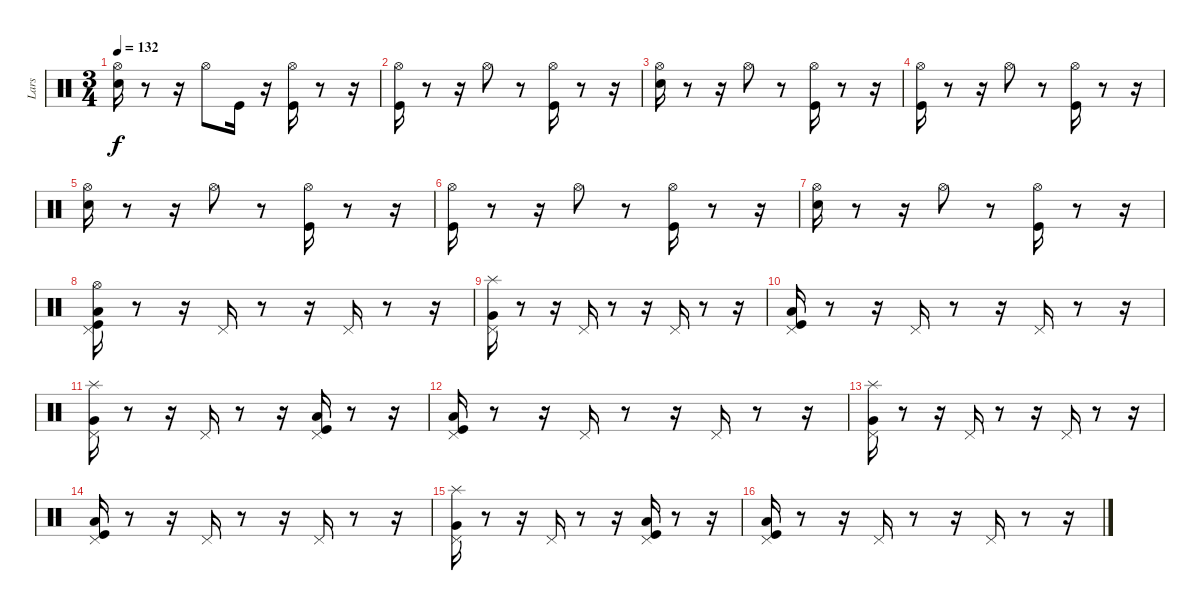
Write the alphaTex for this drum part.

\track ("Lars" "Lars") {instrument percussion}
\staff {score}
\articulation defaults
\ts (3 4)
\tempo 132
\clef neutral
\ks c
("Snare (hit) 2" "Hi-Hat (open)").16{dy f} r.8 r.16 "Hi-Hat (open)".8 "Kick (hit)".16 r.16 ("Hi-Hat (open)" "Kick (hit)").16 r.8 r.16 |
("Kick (hit)" "Hi-Hat (open)").16 r.8 r.16 "Hi-Hat (open)".8 r.8 ("Hi-Hat (open)" "Kick (hit)").16 r.8 r.16 |
("Hi-Hat (open)" "Snare (hit) 2").16 r.8 r.16 "Hi-Hat (open)".8 r.8 ("Hi-Hat (open)" "Kick (hit)").16 r.8 r.16 |
("Hi-Hat (open)" "Kick (hit)").16 r.8 r.16 "Hi-Hat (open)".8 r.8 ("Kick (hit)" "Hi-Hat (open)").16 r.8 r.16 |
("Hi-Hat (open)" "Snare (hit) 2").16 r.8 r.16 "Hi-Hat (open)".8 r.8 ("Hi-Hat (open)" "Kick (hit)").16 r.8 r.16 |
("Hi-Hat (open)" "Kick (hit)").16 r.8 r.16 "Hi-Hat (open)".8 r.8 ("Kick (hit)" "Hi-Hat (open)").16 r.8 r.16 |
("Hi-Hat (open)" "Snare (hit) 2").16 r.8 r.16 "Hi-Hat (open)".8 r.8 ("Hi-Hat (open)" "Kick (hit)").16 r.8 r.16 |
("Hi-Hat (open)" "Kick (hit)" "Pedal Hi-Hat (hit)" "Low Floor Tom (hit)").16 r.8 r.16 "Pedal Hi-Hat (hit)".16 r.8 r.16 "Pedal Hi-Hat (hit)".16 r.8 r.16 |
("Pedal Hi-Hat (hit)" "Very Low Tom (hit)" "Splash (hit)").16 r.8 r.16 "Pedal Hi-Hat (hit)".16 r.8 r.16 "Pedal Hi-Hat (hit)".16 r.8 r.16 |
("Low Floor Tom (hit)" "Pedal Hi-Hat (hit)" "Kick (hit)").16 r.8 r.16 "Pedal Hi-Hat (hit)".16 r.8 r.16 "Pedal Hi-Hat (hit)".16 r.8 r.16 |
("Pedal Hi-Hat (hit)" "Very Low Tom (hit)" "Splash (hit)").16 r.8 r.16 "Pedal Hi-Hat (hit)".16 r.8 r.16 ("Pedal Hi-Hat (hit)" "Low Floor Tom (hit)" "Kick (hit)").16 r.8 r.16 |
("Low Floor Tom (hit)" "Pedal Hi-Hat (hit)" "Kick (hit)").16 r.8 r.16 "Pedal Hi-Hat (hit)".16 r.8 r.16 "Pedal Hi-Hat (hit)".16 r.8 r.16 |
("Pedal Hi-Hat (hit)" "Very Low Tom (hit)" "Splash (hit)").16 r.8 r.16 "Pedal Hi-Hat (hit)".16 r.8 r.16 "Pedal Hi-Hat (hit)".16 r.8 r.16 |
("Low Floor Tom (hit)" "Pedal Hi-Hat (hit)" "Kick (hit)").16 r.8 r.16 "Pedal Hi-Hat (hit)".16 r.8 r.16 "Pedal Hi-Hat (hit)".16 r.8 r.16 |
("Pedal Hi-Hat (hit)" "Very Low Tom (hit)" "Splash (hit)").16 r.8 r.16 "Pedal Hi-Hat (hit)".16 r.8 r.16 ("Pedal Hi-Hat (hit)" "Low Floor Tom (hit)" "Kick (hit)").16 r.8 r.16 |
("Low Floor Tom (hit)" "Pedal Hi-Hat (hit)" "Kick (hit)").16 r.8 r.16 "Pedal Hi-Hat (hit)".16 r.8 r.16 "Pedal Hi-Hat (hit)".16 r.8 r.16
